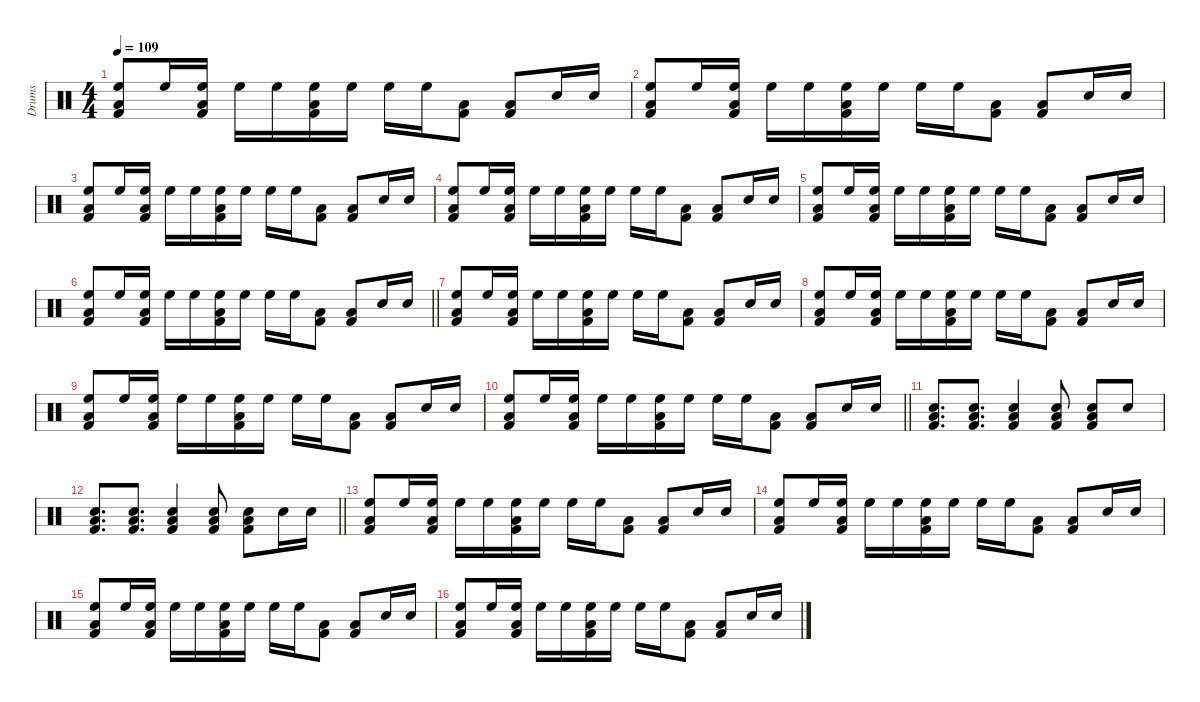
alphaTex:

\defaultSystemsLayout 4
\hideDynamics
\bracketExtendMode nobrackets
\otherSystemsTrackNameOrientation horizontal
\track ("Drums" "Drums") {instrument percussion}
\staff {score}
\articulation defaults
\ts (4 4)
\tempo 109
\clef neutral
\scale
0.5
\ks c
("Kick (hit) 2" "Low Tom (hit)" "High Floor Tom (hit)").8{dy mp beam Up} "High Floor Tom (hit)".16{beam Up} ("Kick (hit) 2" "Low Tom (hit)" "High Floor Tom (hit)").16{beam Up} "High Floor Tom (hit)".16{beam Down} "High Floor Tom (hit)".16{beam Down} ("Kick (hit) 2" "Low Tom (hit)" "High Floor Tom (hit)").16{beam Down} "High Floor Tom (hit)".16{beam Down} "High Floor Tom (hit)".16{beam Down} "High Floor Tom (hit)".16{beam Down} ("Kick (hit) 2" "Low Tom (hit)").8{beam Down} ("Kick (hit) 2" "Low Tom (hit)").8{beam Up} "Snare (hit) 2".16{beam Up} "Snare (hit) 2".16{beam Up} |
\scale
0.5 ("Kick (hit) 2" "Low Tom (hit)" "High Floor Tom (hit)").8{beam Up} "High Floor Tom (hit)".16{beam Up} ("Kick (hit) 2" "Low Tom (hit)" "High Floor Tom (hit)").16{beam Up} "High Floor Tom (hit)".16{beam Down} "High Floor Tom (hit)".16{beam Down} ("Kick (hit) 2" "Low Tom (hit)" "High Floor Tom (hit)").16{beam Down} "High Floor Tom (hit)".16{beam Down} "High Floor Tom (hit)".16{beam Down} "High Floor Tom (hit)".16{beam Down} ("Kick (hit) 2" "Low Tom (hit)").8{beam Down} ("Kick (hit) 2" "Low Tom (hit)").8{beam Up} "Snare (hit) 2".16{beam Up} "Snare (hit) 2".16{beam Up} |
\scale
0.5 ("Kick (hit) 2" "Low Tom (hit)" "High Floor Tom (hit)").8{beam Up} "High Floor Tom (hit)".16{beam Up} ("Kick (hit) 2" "Low Tom (hit)" "High Floor Tom (hit)").16{beam Up} "High Floor Tom (hit)".16{beam Down} "High Floor Tom (hit)".16{beam Down} ("Kick (hit) 2" "Low Tom (hit)" "High Floor Tom (hit)").16{beam Down} "High Floor Tom (hit)".16{beam Down} "High Floor Tom (hit)".16{beam Down} "High Floor Tom (hit)".16{beam Down} ("Kick (hit) 2" "Low Tom (hit)").8{beam Down} ("Kick (hit) 2" "Low Tom (hit)").8{beam Up} "Snare (hit) 2".16{beam Up} "Snare (hit) 2".16{beam Up} |
\scale
0.5 ("Kick (hit) 2" "Low Tom (hit)" "High Floor Tom (hit)").8{beam Up} "High Floor Tom (hit)".16{beam Up} ("Kick (hit) 2" "Low Tom (hit)" "High Floor Tom (hit)").16{beam Up} "High Floor Tom (hit)".16{beam Down} "High Floor Tom (hit)".16{beam Down} ("Kick (hit) 2" "Low Tom (hit)" "High Floor Tom (hit)").16{beam Down} "High Floor Tom (hit)".16{beam Down} "High Floor Tom (hit)".16{beam Down} "High Floor Tom (hit)".16{beam Down} ("Kick (hit) 2" "Low Tom (hit)").8{beam Down} ("Kick (hit) 2" "Low Tom (hit)").8{beam Up} "Snare (hit) 2".16{beam Up} "Snare (hit) 2".16{beam Up} |
\scale
0.5 ("Kick (hit) 2" "Low Tom (hit)" "High Floor Tom (hit)").8{beam Up} "High Floor Tom (hit)".16{beam Up} ("Kick (hit) 2" "Low Tom (hit)" "High Floor Tom (hit)").16{beam Up} "High Floor Tom (hit)".16{beam Down} "High Floor Tom (hit)".16{beam Down} ("Kick (hit) 2" "Low Tom (hit)" "High Floor Tom (hit)").16{beam Down} "High Floor Tom (hit)".16{beam Down} "High Floor Tom (hit)".16{beam Down} "High Floor Tom (hit)".16{beam Down} ("Kick (hit) 2" "Low Tom (hit)").8{beam Down} ("Kick (hit) 2" "Low Tom (hit)").8{beam Up} "Snare (hit) 2".16{beam Up} "Snare (hit) 2".16{beam Up} |
\scale
0.5
\barLineRight lightlight
("Kick (hit) 2" "Low Tom (hit)" "High Floor Tom (hit)").8{beam Up} "High Floor Tom (hit)".16{beam Up} ("Kick (hit) 2" "Low Tom (hit)" "High Floor Tom (hit)").16{beam Up} "High Floor Tom (hit)".16{beam Down} "High Floor Tom (hit)".16{beam Down} ("Kick (hit) 2" "Low Tom (hit)" "High Floor Tom (hit)").16{beam Down} "High Floor Tom (hit)".16{beam Down} "High Floor Tom (hit)".16{beam Down} "High Floor Tom (hit)".16{beam Down} ("Kick (hit) 2" "Low Tom (hit)").8{beam Down} ("Kick (hit) 2" "Low Tom (hit)").8{beam Up} "Snare (hit) 2".16{beam Up} "Snare (hit) 2".16{beam Up} |
\scale
0.5 ("Kick (hit) 2" "Low Tom (hit)" "High Floor Tom (hit)").8{beam Up} "High Floor Tom (hit)".16{beam Up} ("Kick (hit) 2" "Low Tom (hit)" "High Floor Tom (hit)").16{beam Up} "High Floor Tom (hit)".16{beam Down} "High Floor Tom (hit)".16{beam Down} ("Kick (hit) 2" "Low Tom (hit)" "High Floor Tom (hit)").16{beam Down} "High Floor Tom (hit)".16{beam Down} "High Floor Tom (hit)".16{beam Down} "High Floor Tom (hit)".16{beam Down} ("Kick (hit) 2" "Low Tom (hit)").8{beam Down} ("Kick (hit) 2" "Low Tom (hit)").8{beam Up} "Snare (hit) 2".16{beam Up} "Snare (hit) 2".16{beam Up} |
\scale
0.5 ("Kick (hit) 2" "Low Tom (hit)" "High Floor Tom (hit)").8{beam Up} "High Floor Tom (hit)".16{beam Up} ("Kick (hit) 2" "Low Tom (hit)" "High Floor Tom (hit)").16{beam Up} "High Floor Tom (hit)".16{beam Down} "High Floor Tom (hit)".16{beam Down} ("Kick (hit) 2" "Low Tom (hit)" "High Floor Tom (hit)").16{beam Down} "High Floor Tom (hit)".16{beam Down} "High Floor Tom (hit)".16{beam Down} "High Floor Tom (hit)".16{beam Down} ("Kick (hit) 2" "Low Tom (hit)").8{beam Down} ("Kick (hit) 2" "Low Tom (hit)").8{beam Up} "Snare (hit) 2".16{beam Up} "Snare (hit) 2".16{beam Up} |
\scale
0.5 ("Kick (hit) 2" "Low Tom (hit)" "High Floor Tom (hit)").8{beam Up} "High Floor Tom (hit)".16{beam Up} ("Kick (hit) 2" "Low Tom (hit)" "High Floor Tom (hit)").16{beam Up} "High Floor Tom (hit)".16{beam Down} "High Floor Tom (hit)".16{beam Down} ("Kick (hit) 2" "Low Tom (hit)" "High Floor Tom (hit)").16{beam Down} "High Floor Tom (hit)".16{beam Down} "High Floor Tom (hit)".16{beam Down} "High Floor Tom (hit)".16{beam Down} ("Kick (hit) 2" "Low Tom (hit)").8{beam Down} ("Kick (hit) 2" "Low Tom (hit)").8{beam Up} "Snare (hit) 2".16{beam Up} "Snare (hit) 2".16{beam Up} |
\scale
0.5
\barLineRight lightlight
("Kick (hit) 2" "Low Tom (hit)" "High Floor Tom (hit)").8{beam Up} "High Floor Tom (hit)".16{beam Up} ("Kick (hit) 2" "Low Tom (hit)" "High Floor Tom (hit)").16{beam Up} "High Floor Tom (hit)".16{beam Down} "High Floor Tom (hit)".16{beam Down} ("Kick (hit) 2" "Low Tom (hit)" "High Floor Tom (hit)").16{beam Down} "High Floor Tom (hit)".16{beam Down} "High Floor Tom (hit)".16{beam Down} "High Floor Tom (hit)".16{beam Down} ("Kick (hit) 2" "Low Tom (hit)").8{beam Down} ("Kick (hit) 2" "Low Tom (hit)").8{beam Up} "Snare (hit) 2".16{beam Up} "Snare (hit) 2".16{beam Up} |
\scale
0.459283 ("Kick (hit) 2" "Low Tom (hit)" "Snare (hit) 2").8{d beam Up} ("Kick (hit) 2" "Low Tom (hit)" "Snare (hit) 2").8{d beam Up} ("Kick (hit) 2" "Low Tom (hit)" "Snare (hit) 2").4{beam Up} ("Kick (hit) 2" "Low Tom (hit)" "Snare (hit) 2").8{beam Up} ("Kick (hit) 2" "Low Tom (hit)" "Snare (hit) 2").8{beam Up} "Snare (hit) 2".8{beam Up} |
\scale
0.540717
\barLineRight lightlight
("Kick (hit) 2" "Low Tom (hit)" "Snare (hit) 2").8{d beam Up} ("Kick (hit) 2" "Low Tom (hit)" "Snare (hit) 2").8{d beam Up} ("Kick (hit) 2" "Low Tom (hit)" "Snare (hit) 2").4{beam Up} ("Kick (hit) 2" "Low Tom (hit)" "Snare (hit) 2").8{beam Up} ("Kick (hit) 2" "Low Tom (hit)" "Snare (hit) 2").8{beam Down} "Snare (hit) 2".16{beam Down} "Snare (hit) 2".16{beam Down} |
\scale
0.5 ("Kick (hit) 2" "Low Tom (hit)" "High Floor Tom (hit)").8{beam Up} "High Floor Tom (hit)".16{beam Up} ("Kick (hit) 2" "Low Tom (hit)" "High Floor Tom (hit)").16{beam Up} "High Floor Tom (hit)".16{beam Down} "High Floor Tom (hit)".16{beam Down} ("Kick (hit) 2" "Low Tom (hit)" "High Floor Tom (hit)").16{beam Down} "High Floor Tom (hit)".16{beam Down} "High Floor Tom (hit)".16{beam Down} "High Floor Tom (hit)".16{beam Down} ("Kick (hit) 2" "Low Tom (hit)").8{beam Down} ("Kick (hit) 2" "Low Tom (hit)").8{beam Up} "Snare (hit) 2".16{beam Up} "Snare (hit) 2".16{beam Up} |
\scale
0.5 ("Kick (hit) 2" "Low Tom (hit)" "High Floor Tom (hit)").8{beam Up} "High Floor Tom (hit)".16{beam Up} ("Kick (hit) 2" "Low Tom (hit)" "High Floor Tom (hit)").16{beam Up} "High Floor Tom (hit)".16{beam Down} "High Floor Tom (hit)".16{beam Down} ("Kick (hit) 2" "Low Tom (hit)" "High Floor Tom (hit)").16{beam Down} "High Floor Tom (hit)".16{beam Down} "High Floor Tom (hit)".16{beam Down} "High Floor Tom (hit)".16{beam Down} ("Kick (hit) 2" "Low Tom (hit)").8{beam Down} ("Kick (hit) 2" "Low Tom (hit)").8{beam Up} "Snare (hit) 2".16{beam Up} "Snare (hit) 2".16{beam Up} |
\scale
0.5 ("Kick (hit) 2" "Low Tom (hit)" "High Floor Tom (hit)").8{beam Up} "High Floor Tom (hit)".16{beam Up} ("Kick (hit) 2" "Low Tom (hit)" "High Floor Tom (hit)").16{beam Up} "High Floor Tom (hit)".16{beam Down} "High Floor Tom (hit)".16{beam Down} ("Kick (hit) 2" "Low Tom (hit)" "High Floor Tom (hit)").16{beam Down} "High Floor Tom (hit)".16{beam Down} "High Floor Tom (hit)".16{beam Down} "High Floor Tom (hit)".16{beam Down} ("Kick (hit) 2" "Low Tom (hit)").8{beam Down} ("Kick (hit) 2" "Low Tom (hit)").8{beam Up} "Snare (hit) 2".16{beam Up} "Snare (hit) 2".16{beam Up} |
\scale
0.5 ("Kick (hit) 2" "Low Tom (hit)" "High Floor Tom (hit)").8{beam Up} "High Floor Tom (hit)".16{beam Up} ("Kick (hit) 2" "Low Tom (hit)" "High Floor Tom (hit)").16{beam Up} "High Floor Tom (hit)".16{beam Down} "High Floor Tom (hit)".16{beam Down} ("Kick (hit) 2" "Low Tom (hit)" "High Floor Tom (hit)").16{beam Down} "High Floor Tom (hit)".16{beam Down} "High Floor Tom (hit)".16{beam Down} "High Floor Tom (hit)".16{beam Down} ("Kick (hit) 2" "Low Tom (hit)").8{beam Down} ("Kick (hit) 2" "Low Tom (hit)").8{beam Up} "Snare (hit) 2".16{beam Up} "Snare (hit) 2".16{beam Up}
